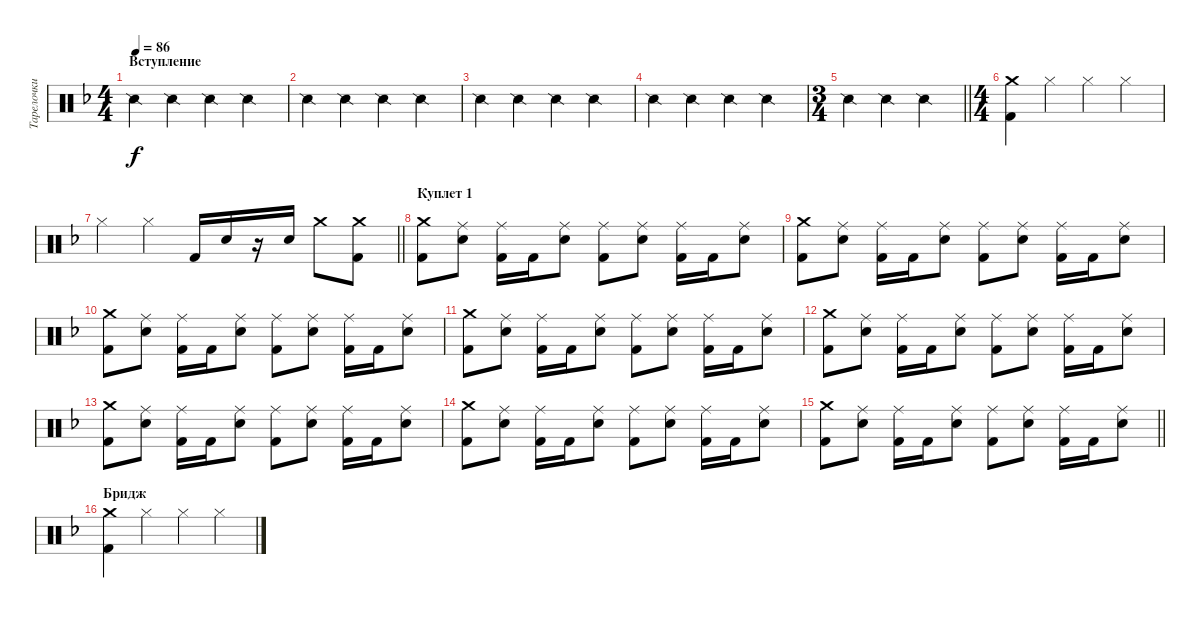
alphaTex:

\track ("Тарелочки" "Тарелочки") {instrument percussion}
\staff {score}
\articulation defaults
\ts (4 4)
\section ("" "Вступление")
\tempo 86
\clef neutral
\ks dminor "Snare (side stick) 2".4{dy f} "Snare (side stick) 2".4 "Snare (side stick) 2".4 "Snare (side stick) 2".4
|
"Snare (side stick) 2".4 "Snare (side stick) 2".4 "Snare (side stick) 2".4 "Snare (side stick) 2".4 |
"Snare (side stick) 2".4 "Snare (side stick) 2".4 "Snare (side stick) 2".4 "Snare (side stick) 2".4 |
"Snare (side stick) 2".4 "Snare (side stick) 2".4 "Snare (side stick) 2".4 "Snare (side stick) 2".4 |
\ts (3 4)
\barLineRight lightlight "Snare (side stick) 2".4 "Snare (side stick) 2".4 "Snare (side stick) 2".4
|
\ts (4 4)
\ks f
("Kick (hit) 2" "Crash medium (hit)").4 "Hi-Hat (closed)".4 "Hi-Hat (closed)".4 "Hi-Hat (closed)".4 |
\barLineRight lightlight "Hi-Hat (closed)".4 "Hi-Hat (closed)".4 "Kick (hit) 2".16 "Snare (hit) 2".16
r.16 "Snare (hit) 2".16 "Crash medium (hit)".8 ("Kick (hit) 2" "Crash medium (hit)").8 |
\section ("" "Куплет 1")
("Kick (hit) 2" "Crash medium (hit)").8 ("Snare (hit) 2" "Ride (middle)").8 ("Kick (hit) 2" "Ride (middle)").16 "Kick (hit) 2".16 ("Snare (hit) 2" "Ride (middle)").8 ("Kick (hit) 2" "Ride (middle)").8 ("Snare (hit) 2" "Ride (middle)").8 ("Kick (hit) 2" "Ride (middle)").16 "Kick (hit) 2".16 ("Snare (hit) 2" "Ride (middle)").8 |
("Kick (hit) 2" "Crash medium (hit)").8 ("Snare (hit) 2" "Ride (middle)").8 ("Kick (hit) 2" "Ride (middle)").16 "Kick (hit) 2".16 ("Snare (hit) 2" "Ride (middle)").8 ("Kick (hit) 2" "Ride (middle)").8 ("Snare (hit) 2" "Ride (middle)").8 ("Kick (hit) 2" "Ride (middle)").16 "Kick (hit) 2".16 ("Snare (hit) 2" "Ride (middle)").8 |
("Kick (hit) 2" "Crash medium (hit)").8 ("Snare (hit) 2" "Ride (middle)").8 ("Kick (hit) 2" "Ride (middle)").16 "Kick (hit) 2".16 ("Snare (hit) 2" "Ride (middle)").8 ("Kick (hit) 2" "Ride (middle)").8 ("Snare (hit) 2" "Ride (middle)").8 ("Kick (hit) 2" "Ride (middle)").16 "Kick (hit) 2".16 ("Snare (hit) 2" "Ride (middle)").8 |
("Kick (hit) 2" "Crash medium (hit)").8 ("Snare (hit) 2" "Ride (middle)").8 ("Kick (hit) 2" "Ride (middle)").16 "Kick (hit) 2".16 ("Snare (hit) 2" "Ride (middle)").8 ("Kick (hit) 2" "Ride (middle)").8 ("Snare (hit) 2" "Ride (middle)").8 ("Kick (hit) 2" "Ride (middle)").16 "Kick (hit) 2".16 ("Snare (hit) 2" "Ride (middle)").8 |
("Kick (hit) 2" "Crash medium (hit)").8 ("Snare (hit) 2" "Ride (middle)").8 ("Kick (hit) 2" "Ride (middle)").16 "Kick (hit) 2".16 ("Snare (hit) 2" "Ride (middle)").8 ("Kick (hit) 2" "Ride (middle)").8 ("Snare (hit) 2" "Ride (middle)").8 ("Kick (hit) 2" "Ride (middle)").16 "Kick (hit) 2".16 ("Snare (hit) 2" "Ride (middle)").8 |
("Kick (hit) 2" "Crash medium (hit)").8 ("Snare (hit) 2" "Ride (middle)").8 ("Kick (hit) 2" "Ride (middle)").16 "Kick (hit) 2".16 ("Snare (hit) 2" "Ride (middle)").8 ("Kick (hit) 2" "Ride (middle)").8 ("Snare (hit) 2" "Ride (middle)").8 ("Kick (hit) 2" "Ride (middle)").16 "Kick (hit) 2".16 ("Snare (hit) 2" "Ride (middle)").8 |
("Kick (hit) 2" "Crash medium (hit)").8 ("Snare (hit) 2" "Ride (middle)").8 ("Kick (hit) 2" "Ride (middle)").16 "Kick (hit) 2".16 ("Snare (hit) 2" "Ride (middle)").8 ("Kick (hit) 2" "Ride (middle)").8 ("Snare (hit) 2" "Ride (middle)").8 ("Kick (hit) 2" "Ride (middle)").16 "Kick (hit) 2".16 ("Snare (hit) 2" "Ride (middle)").8 |
\barLineRight lightlight
("Kick (hit) 2" "Crash medium (hit)").8 ("Snare (hit) 2" "Ride (middle)").8 ("Kick (hit) 2" "Ride (middle)").16 "Kick (hit) 2".16 ("Snare (hit) 2" "Ride (middle)").8 ("Kick (hit) 2" "Ride (middle)").8 ("Snare (hit) 2" "Ride (middle)").8 ("Kick (hit) 2" "Ride (middle)").16 "Kick (hit) 2".16 ("Snare (hit) 2" "Ride (middle)").8 |
\section ("" "Бридж")
("Kick (hit) 2" "Crash medium (hit)").4 "Hi-Hat (closed)".4 "Hi-Hat (closed)".4 "Hi-Hat (closed)".4
